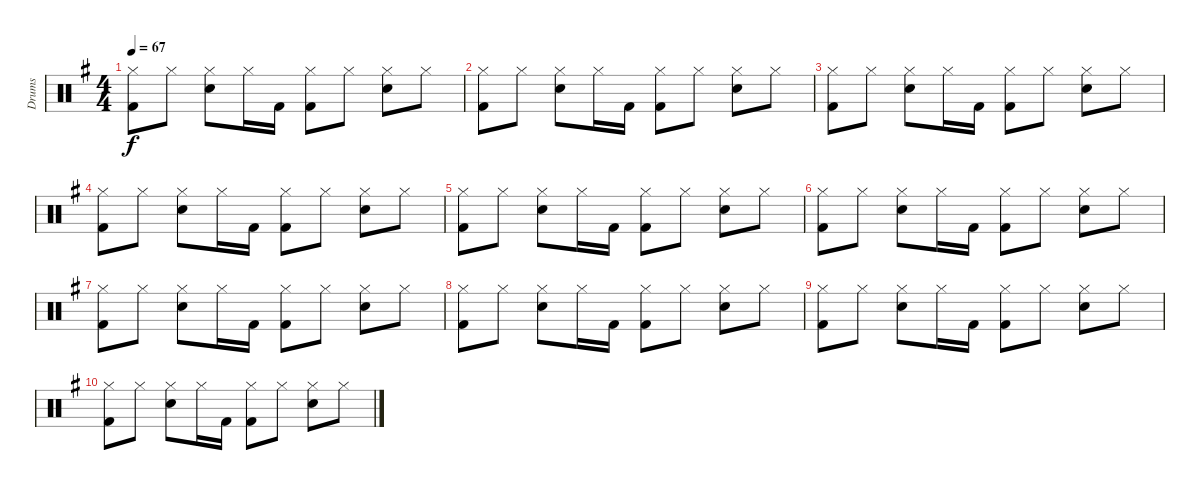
\track ("Drums" "Drums") {instrument percussion}
\staff {score}
\articulation defaults
\ts (4 4)
\tempo 67
\clef neutral
\ks g
("Hi-Hat (closed)" "Kick (hit) 2").8{dy f} "Hi-Hat (closed)".8 ("Hi-Hat (closed)" "Snare (hit) 2").8 "Hi-Hat (closed)".16 "Kick (hit) 2".16 ("Hi-Hat (closed)" "Kick (hit) 2").8 "Hi-Hat (closed)".8 ("Hi-Hat (closed)" "Snare (hit) 2").8 "Hi-Hat (closed)".8 |
("Hi-Hat (closed)" "Kick (hit) 2").8 "Hi-Hat (closed)".8 ("Hi-Hat (closed)" "Snare (hit) 2").8 "Hi-Hat (closed)".16 "Kick (hit) 2".16 ("Hi-Hat (closed)" "Kick (hit) 2").8 "Hi-Hat (closed)".8 ("Hi-Hat (closed)" "Snare (hit) 2").8 "Hi-Hat (closed)".8 |
("Hi-Hat (closed)" "Kick (hit) 2").8 "Hi-Hat (closed)".8 ("Hi-Hat (closed)" "Snare (hit) 2").8 "Hi-Hat (closed)".16 "Kick (hit) 2".16 ("Hi-Hat (closed)" "Kick (hit) 2").8 "Hi-Hat (closed)".8 ("Hi-Hat (closed)" "Snare (hit) 2").8 "Hi-Hat (closed)".8 |
("Hi-Hat (closed)" "Kick (hit) 2").8 "Hi-Hat (closed)".8 ("Hi-Hat (closed)" "Snare (hit) 2").8 "Hi-Hat (closed)".16 "Kick (hit) 2".16 ("Hi-Hat (closed)" "Kick (hit) 2").8 "Hi-Hat (closed)".8 ("Hi-Hat (closed)" "Snare (hit) 2").8 "Hi-Hat (closed)".8 |
("Hi-Hat (closed)" "Kick (hit) 2").8 "Hi-Hat (closed)".8 ("Hi-Hat (closed)" "Snare (hit) 2").8 "Hi-Hat (closed)".16 "Kick (hit) 2".16 ("Hi-Hat (closed)" "Kick (hit) 2").8 "Hi-Hat (closed)".8 ("Hi-Hat (closed)" "Snare (hit) 2").8 "Hi-Hat (closed)".8 |
("Hi-Hat (closed)" "Kick (hit) 2").8 "Hi-Hat (closed)".8 ("Hi-Hat (closed)" "Snare (hit) 2").8 "Hi-Hat (closed)".16 "Kick (hit) 2".16 ("Hi-Hat (closed)" "Kick (hit) 2").8 "Hi-Hat (closed)".8 ("Hi-Hat (closed)" "Snare (hit) 2").8 "Hi-Hat (closed)".8 |
("Hi-Hat (closed)" "Kick (hit) 2").8{volume 0} "Hi-Hat (closed)".8 ("Hi-Hat (closed)" "Snare (hit) 2").8 "Hi-Hat (closed)".16 "Kick (hit) 2".16 ("Hi-Hat (closed)" "Kick (hit) 2").8 "Hi-Hat (closed)".8 ("Hi-Hat (closed)" "Snare (hit) 2").8 "Hi-Hat (closed)".8 |
("Hi-Hat (closed)" "Kick (hit) 2").8 "Hi-Hat (closed)".8 ("Hi-Hat (closed)" "Snare (hit) 2").8 "Hi-Hat (closed)".16 "Kick (hit) 2".16 ("Hi-Hat (closed)" "Kick (hit) 2").8 "Hi-Hat (closed)".8 ("Hi-Hat (closed)" "Snare (hit) 2").8 "Hi-Hat (closed)".8 |
("Hi-Hat (closed)" "Kick (hit) 2").8 "Hi-Hat (closed)".8 ("Hi-Hat (closed)" "Snare (hit) 2").8 "Hi-Hat (closed)".16 "Kick (hit) 2".16 ("Hi-Hat (closed)" "Kick (hit) 2").8 "Hi-Hat (closed)".8 ("Hi-Hat (closed)" "Snare (hit) 2").8 "Hi-Hat (closed)".8 |
("Hi-Hat (closed)" "Kick (hit) 2").8 "Hi-Hat (closed)".8 ("Hi-Hat (closed)" "Snare (hit) 2").8 "Hi-Hat (closed)".16 "Kick (hit) 2".16 ("Hi-Hat (closed)" "Kick (hit) 2").8 "Hi-Hat (closed)".8 ("Hi-Hat (closed)" "Snare (hit) 2").8 "Hi-Hat (closed)".8
